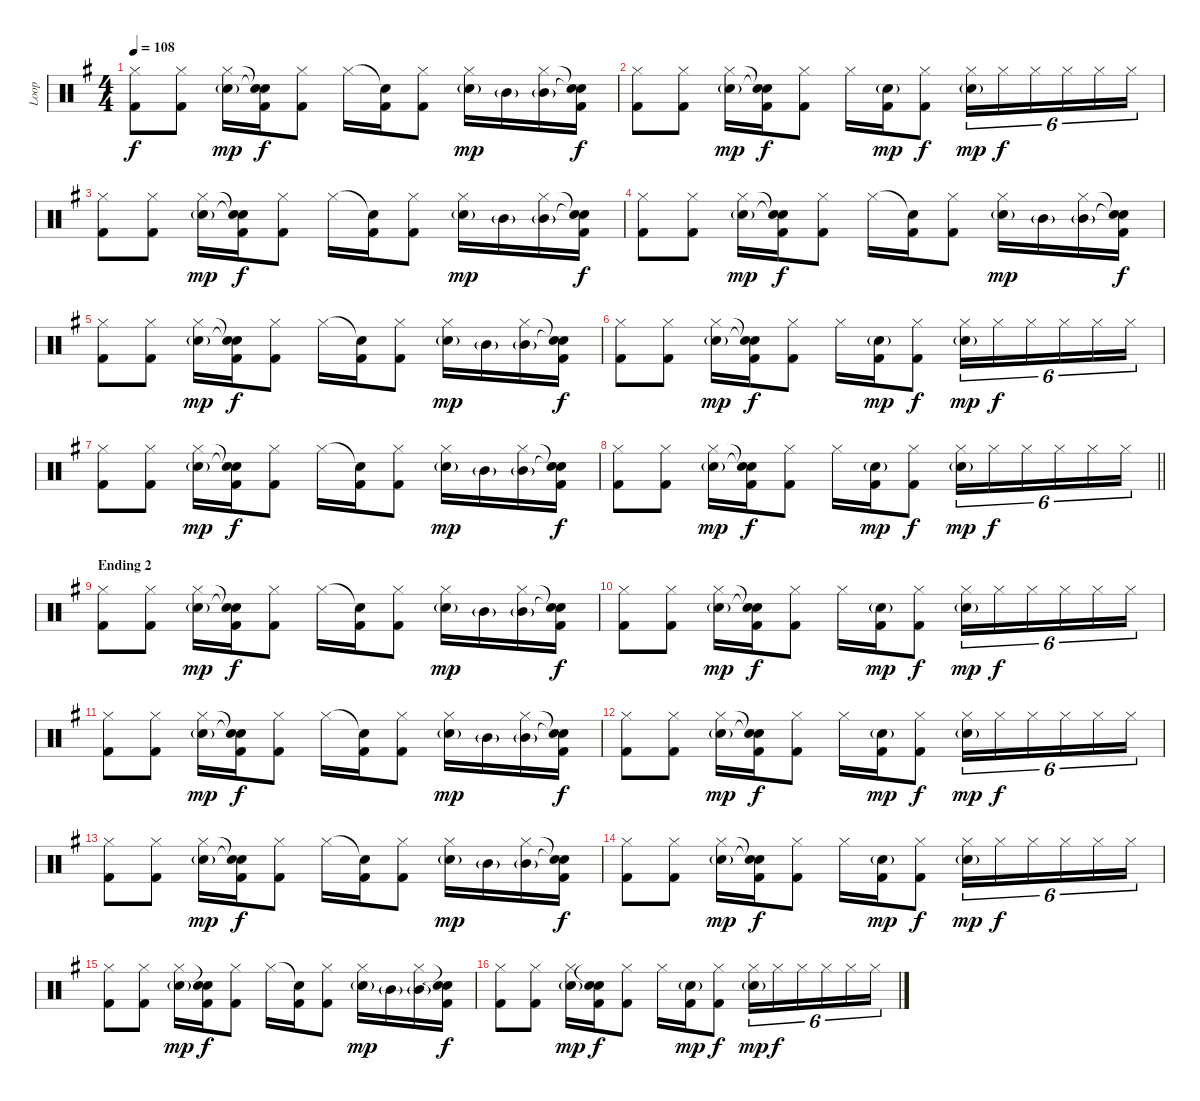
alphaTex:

\track ("Loop" "Loop") {instrument percussion}
\staff {score}
\articulation defaults
\ts (4 4)
\tempo 108
\clef neutral
\ks eminor
("Hi-Hat (closed)" "Kick (hit) 2").8{dy f} ("Hi-Hat (closed)" "Kick (hit) 2").8 ("Hi-Hat (closed)" "Electric Snare (hit)"{g}).16{dy mp} ("Snare (hit)"{t} "Snare (hit)"{t} "Kick (hit) 2").16{dy f} ("Hi-Hat (closed)" "Kick (hit) 2").8 "Hi-Hat (closed)".16 ("Snare (hit)"{t} "Kick (hit) 2").16 ("Hi-Hat (closed)" "Kick (hit) 2").8 ("Hi-Hat (closed)" "Electric Snare (hit)"{g}).16{dy mp} "Mid Tom (hit)"{g}.16 ("Hi-Hat (closed)" "Mid Tom (hit)"{g}).16 ("Snare (hit)"{t} "Snare (hit)"{t} "Kick (hit) 2").16{dy f} |
("Hi-Hat (closed)" "Kick (hit) 2").8 ("Hi-Hat (closed)" "Kick (hit) 2").8 ("Hi-Hat (closed)" "Electric Snare (hit)"{g}).16{dy mp} ("Snare (hit)"{t} "Snare (hit)"{t} "Kick (hit) 2").16{dy f} ("Hi-Hat (closed)" "Kick (hit) 2").8 "Hi-Hat (closed)".16 ("Electric Snare (hit)"{g} "Kick (hit) 2").16{dy mp} ("Hi-Hat (closed)" "Kick (hit) 2").8{dy f} ("Hi-Hat (closed)" "Electric Snare (hit)"{g}).16{tu (6 4) dy mp} "Hi-Hat (closed)".16{tu (6 4) dy f} "Hi-Hat (closed)".16{tu (6 4)} "Hi-Hat (closed)".16{tu (6 4)} "Hi-Hat (closed)".16{tu (6 4)} "Hi-Hat (closed)".16{tu (6 4)} |
("Hi-Hat (closed)" "Kick (hit) 2").8 ("Hi-Hat (closed)" "Kick (hit) 2").8 ("Hi-Hat (closed)" "Electric Snare (hit)"{g}).16{dy mp} ("Snare (hit)"{t} "Snare (hit)"{t} "Kick (hit) 2").16{dy f} ("Hi-Hat (closed)" "Kick (hit) 2").8 "Hi-Hat (closed)".16 ("Snare (hit)"{t} "Kick (hit) 2").16 ("Hi-Hat (closed)" "Kick (hit) 2").8 ("Hi-Hat (closed)" "Electric Snare (hit)"{g}).16{dy mp} "Mid Tom (hit)"{g}.16 ("Hi-Hat (closed)" "Mid Tom (hit)"{g}).16 ("Snare (hit)"{t} "Snare (hit)"{t} "Kick (hit) 2").16{dy f} |
("Hi-Hat (closed)" "Kick (hit) 2").8 ("Hi-Hat (closed)" "Kick (hit) 2").8 ("Hi-Hat (closed)" "Electric Snare (hit)"{g}).16{dy mp} ("Snare (hit)"{t} "Snare (hit)"{t} "Kick (hit) 2").16{dy f} ("Hi-Hat (closed)" "Kick (hit) 2").8 "Hi-Hat (closed)".16 ("Snare (hit)"{t} "Kick (hit) 2").16 ("Hi-Hat (closed)" "Kick (hit) 2").8 ("Hi-Hat (closed)" "Electric Snare (hit)"{g}).16{dy mp} "Mid Tom (hit)"{g}.16 ("Hi-Hat (closed)" "Mid Tom (hit)"{g}).16 ("Snare (hit)"{t} "Snare (hit)"{t} "Kick (hit) 2").16{dy f} |
("Hi-Hat (closed)" "Kick (hit) 2").8 ("Hi-Hat (closed)" "Kick (hit) 2").8 ("Hi-Hat (closed)" "Electric Snare (hit)"{g}).16{dy mp} ("Snare (hit)"{t} "Snare (hit)"{t} "Kick (hit) 2").16{dy f} ("Hi-Hat (closed)" "Kick (hit) 2").8 "Hi-Hat (closed)".16 ("Snare (hit)"{t} "Kick (hit) 2").16 ("Hi-Hat (closed)" "Kick (hit) 2").8 ("Hi-Hat (closed)" "Electric Snare (hit)"{g}).16{dy mp} "Mid Tom (hit)"{g}.16 ("Hi-Hat (closed)" "Mid Tom (hit)"{g}).16 ("Snare (hit)"{t} "Snare (hit)"{t} "Kick (hit) 2").16{dy f} |
("Hi-Hat (closed)" "Kick (hit) 2").8 ("Hi-Hat (closed)" "Kick (hit) 2").8 ("Hi-Hat (closed)" "Electric Snare (hit)"{g}).16{dy mp} ("Snare (hit)"{t} "Snare (hit)"{t} "Kick (hit) 2").16{dy f} ("Hi-Hat (closed)" "Kick (hit) 2").8 "Hi-Hat (closed)".16 ("Electric Snare (hit)"{g} "Kick (hit) 2").16{dy mp} ("Hi-Hat (closed)" "Kick (hit) 2").8{dy f} ("Hi-Hat (closed)" "Electric Snare (hit)"{g}).16{tu (6 4) dy mp} "Hi-Hat (closed)".16{tu (6 4) dy f} "Hi-Hat (closed)".16{tu (6 4)} "Hi-Hat (closed)".16{tu (6 4)} "Hi-Hat (closed)".16{tu (6 4)} "Hi-Hat (closed)".16{tu (6 4)} |
("Hi-Hat (closed)" "Kick (hit) 2").8 ("Hi-Hat (closed)" "Kick (hit) 2").8 ("Hi-Hat (closed)" "Electric Snare (hit)"{g}).16{dy mp} ("Snare (hit)"{t} "Snare (hit)"{t} "Kick (hit) 2").16{dy f} ("Hi-Hat (closed)" "Kick (hit) 2").8 "Hi-Hat (closed)".16 ("Snare (hit)"{t} "Kick (hit) 2").16 ("Hi-Hat (closed)" "Kick (hit) 2").8 ("Hi-Hat (closed)" "Electric Snare (hit)"{g}).16{dy mp} "Mid Tom (hit)"{g}.16 ("Hi-Hat (closed)" "Mid Tom (hit)"{g}).16 ("Snare (hit)"{t} "Snare (hit)"{t} "Kick (hit) 2").16{dy f} |
\barLineRight lightlight
("Hi-Hat (closed)" "Kick (hit) 2").8 ("Hi-Hat (closed)" "Kick (hit) 2").8 ("Hi-Hat (closed)" "Electric Snare (hit)"{g}).16{dy mp} ("Snare (hit)"{t} "Snare (hit)"{t} "Kick (hit) 2").16{dy f} ("Hi-Hat (closed)" "Kick (hit) 2").8 "Hi-Hat (closed)".16 ("Electric Snare (hit)"{g} "Kick (hit) 2").16{dy mp} ("Hi-Hat (closed)" "Kick (hit) 2").8{dy f} ("Hi-Hat (closed)" "Electric Snare (hit)"{g}).16{tu (6 4) dy mp} "Hi-Hat (closed)".16{tu (6 4) dy f} "Hi-Hat (closed)".16{tu (6 4)} "Hi-Hat (closed)".16{tu (6 4)} "Hi-Hat (closed)".16{tu (6 4)} "Hi-Hat (closed)".16{tu (6 4)} |
\section ("" "Ending 2")
("Hi-Hat (closed)" "Kick (hit) 2").8 ("Hi-Hat (closed)" "Kick (hit) 2").8 ("Hi-Hat (closed)" "Electric Snare (hit)"{g}).16{dy mp} ("Snare (hit)"{t} "Snare (hit)"{t} "Kick (hit) 2").16{dy f} ("Hi-Hat (closed)" "Kick (hit) 2").8 "Hi-Hat (closed)".16 ("Snare (hit)"{t} "Kick (hit) 2").16 ("Hi-Hat (closed)" "Kick (hit) 2").8 ("Hi-Hat (closed)" "Electric Snare (hit)"{g}).16{dy mp} "Mid Tom (hit)"{g}.16 ("Hi-Hat (closed)" "Mid Tom (hit)"{g}).16 ("Snare (hit)"{t} "Snare (hit)"{t} "Kick (hit) 2").16{dy f} |
("Hi-Hat (closed)" "Kick (hit) 2").8 ("Hi-Hat (closed)" "Kick (hit) 2").8 ("Hi-Hat (closed)" "Electric Snare (hit)"{g}).16{dy mp} ("Snare (hit)"{t} "Snare (hit)"{t} "Kick (hit) 2").16{dy f} ("Hi-Hat (closed)" "Kick (hit) 2").8 "Hi-Hat (closed)".16 ("Electric Snare (hit)"{g} "Kick (hit) 2").16{dy mp} ("Hi-Hat (closed)" "Kick (hit) 2").8{dy f} ("Hi-Hat (closed)" "Electric Snare (hit)"{g}).16{tu (6 4) dy mp} "Hi-Hat (closed)".16{tu (6 4) dy f} "Hi-Hat (closed)".16{tu (6 4)} "Hi-Hat (closed)".16{tu (6 4)} "Hi-Hat (closed)".16{tu (6 4)} "Hi-Hat (closed)".16{tu (6 4)} |
("Hi-Hat (closed)" "Kick (hit) 2").8 ("Hi-Hat (closed)" "Kick (hit) 2").8 ("Hi-Hat (closed)" "Electric Snare (hit)"{g}).16{dy mp} ("Snare (hit)"{t} "Snare (hit)"{t} "Kick (hit) 2").16{dy f} ("Hi-Hat (closed)" "Kick (hit) 2").8 "Hi-Hat (closed)".16 ("Snare (hit)"{t} "Kick (hit) 2").16 ("Hi-Hat (closed)" "Kick (hit) 2").8 ("Hi-Hat (closed)" "Electric Snare (hit)"{g}).16{dy mp} "Mid Tom (hit)"{g}.16 ("Hi-Hat (closed)" "Mid Tom (hit)"{g}).16 ("Snare (hit)"{t} "Snare (hit)"{t} "Kick (hit) 2").16{dy f} |
("Hi-Hat (closed)" "Kick (hit) 2").8 ("Hi-Hat (closed)" "Kick (hit) 2").8 ("Hi-Hat (closed)" "Electric Snare (hit)"{g}).16{dy mp} ("Snare (hit)"{t} "Snare (hit)"{t} "Kick (hit) 2").16{dy f} ("Hi-Hat (closed)" "Kick (hit) 2").8 "Hi-Hat (closed)".16 ("Electric Snare (hit)"{g} "Kick (hit) 2").16{dy mp} ("Hi-Hat (closed)" "Kick (hit) 2").8{dy f} ("Hi-Hat (closed)" "Electric Snare (hit)"{g}).16{tu (6 4) dy mp} "Hi-Hat (closed)".16{tu (6 4) dy f} "Hi-Hat (closed)".16{tu (6 4)} "Hi-Hat (closed)".16{tu (6 4)} "Hi-Hat (closed)".16{tu (6 4)} "Hi-Hat (closed)".16{tu (6 4)} |
("Hi-Hat (closed)" "Kick (hit) 2").8 ("Hi-Hat (closed)" "Kick (hit) 2").8 ("Hi-Hat (closed)" "Electric Snare (hit)"{g}).16{dy mp} ("Snare (hit)"{t} "Snare (hit)"{t} "Kick (hit) 2").16{dy f} ("Hi-Hat (closed)" "Kick (hit) 2").8 "Hi-Hat (closed)".16 ("Snare (hit)"{t} "Kick (hit) 2").16 ("Hi-Hat (closed)" "Kick (hit) 2").8 ("Hi-Hat (closed)" "Electric Snare (hit)"{g}).16{dy mp} "Mid Tom (hit)"{g}.16 ("Hi-Hat (closed)" "Mid Tom (hit)"{g}).16 ("Snare (hit)"{t} "Snare (hit)"{t} "Kick (hit) 2").16{dy f} |
("Hi-Hat (closed)" "Kick (hit) 2").8 ("Hi-Hat (closed)" "Kick (hit) 2").8 ("Hi-Hat (closed)" "Electric Snare (hit)"{g}).16{dy mp} ("Snare (hit)"{t} "Snare (hit)"{t} "Kick (hit) 2").16{dy f} ("Hi-Hat (closed)" "Kick (hit) 2").8 "Hi-Hat (closed)".16 ("Electric Snare (hit)"{g} "Kick (hit) 2").16{dy mp} ("Hi-Hat (closed)" "Kick (hit) 2").8{dy f} ("Hi-Hat (closed)" "Electric Snare (hit)"{g}).16{tu (6 4) dy mp} "Hi-Hat (closed)".16{tu (6 4) dy f} "Hi-Hat (closed)".16{tu (6 4)} "Hi-Hat (closed)".16{tu (6 4)} "Hi-Hat (closed)".16{tu (6 4)} "Hi-Hat (closed)".16{tu (6 4)} |
("Hi-Hat (closed)" "Kick (hit) 2").8 ("Hi-Hat (closed)" "Kick (hit) 2").8 ("Hi-Hat (closed)" "Electric Snare (hit)"{g}).16{dy mp} ("Snare (hit)"{t} "Snare (hit)"{t} "Kick (hit) 2").16{dy f} ("Hi-Hat (closed)" "Kick (hit) 2").8 "Hi-Hat (closed)".16 ("Snare (hit)"{t} "Kick (hit) 2").16 ("Hi-Hat (closed)" "Kick (hit) 2").8 ("Hi-Hat (closed)" "Electric Snare (hit)"{g}).16{dy mp} "Mid Tom (hit)"{g}.16 ("Hi-Hat (closed)" "Mid Tom (hit)"{g}).16 ("Snare (hit)"{t} "Snare (hit)"{t} "Kick (hit) 2").16{dy f} |
("Hi-Hat (closed)" "Kick (hit) 2").8 ("Hi-Hat (closed)" "Kick (hit) 2").8 ("Hi-Hat (closed)" "Electric Snare (hit)"{g}).16{dy mp} ("Snare (hit)"{t} "Snare (hit)"{t} "Kick (hit) 2").16{dy f} ("Hi-Hat (closed)" "Kick (hit) 2").8 "Hi-Hat (closed)".16 ("Electric Snare (hit)"{g} "Kick (hit) 2").16{dy mp} ("Hi-Hat (closed)" "Kick (hit) 2").8{dy f} ("Hi-Hat (closed)" "Electric Snare (hit)"{g}).16{tu (6 4) dy mp} "Hi-Hat (closed)".16{tu (6 4) dy f} "Hi-Hat (closed)".16{tu (6 4)} "Hi-Hat (closed)".16{tu (6 4)} "Hi-Hat (closed)".16{tu (6 4)} "Hi-Hat (closed)".16{tu (6 4)}
